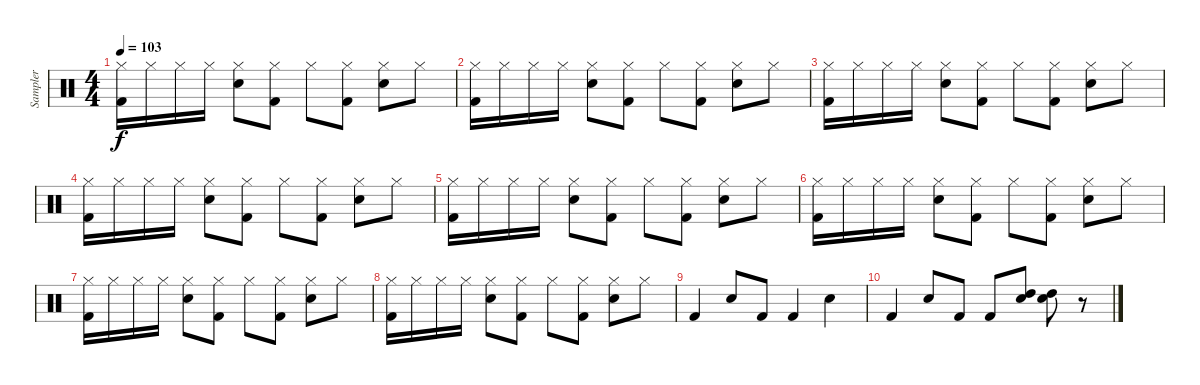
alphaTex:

\track ("Sampler" "Sampler") {instrument percussion}
\staff {score}
\articulation defaults
\ts (4 4)
\tempo 103
\clef neutral
\ks c
("Hi-Hat (closed)" "Kick (hit) 2").16{dy f} "Hi-Hat (closed)".16 "Hi-Hat (closed)".16 "Hi-Hat (closed)".16 ("Hi-Hat (closed)" "Snare (hit) 2").8 ("Hi-Hat (closed)" "Kick (hit) 2").8 "Hi-Hat (closed)".8 ("Hi-Hat (closed)" "Kick (hit) 2").8 ("Hi-Hat (closed)" "Snare (hit) 2").8 "Hi-Hat (closed)".8 |
("Hi-Hat (closed)" "Kick (hit) 2").16 "Hi-Hat (closed)".16 "Hi-Hat (closed)".16 "Hi-Hat (closed)".16 ("Hi-Hat (closed)" "Snare (hit) 2").8 ("Hi-Hat (closed)" "Kick (hit) 2").8 "Hi-Hat (closed)".8 ("Hi-Hat (closed)" "Kick (hit) 2").8 ("Hi-Hat (closed)" "Electric Snare (hit)").8 "Hi-Hat (closed)".8 |
("Hi-Hat (closed)" "Kick (hit) 2").16 "Hi-Hat (closed)".16 "Hi-Hat (closed)".16 "Hi-Hat (closed)".16 ("Hi-Hat (closed)" "Snare (hit) 2").8 ("Hi-Hat (closed)" "Kick (hit) 2").8 "Hi-Hat (closed)".8 ("Hi-Hat (closed)" "Kick (hit) 2").8 ("Hi-Hat (closed)" "Snare (hit) 2").8 "Hi-Hat (closed)".8 |
("Hi-Hat (closed)" "Kick (hit) 2").16 "Hi-Hat (closed)".16 "Hi-Hat (closed)".16 "Hi-Hat (closed)".16 ("Hi-Hat (closed)" "Snare (hit) 2").8 ("Hi-Hat (closed)" "Kick (hit) 2").8 "Hi-Hat (closed)".8 ("Hi-Hat (closed)" "Kick (hit) 2").8 ("Hi-Hat (closed)" "Electric Snare (hit)").8 "Hi-Hat (closed)".8 |
("Hi-Hat (closed)" "Kick (hit) 2").16 "Hi-Hat (closed)".16 "Hi-Hat (closed)".16 "Hi-Hat (closed)".16 ("Hi-Hat (closed)" "Snare (hit) 2").8 ("Hi-Hat (closed)" "Kick (hit) 2").8 "Hi-Hat (closed)".8 ("Hi-Hat (closed)" "Kick (hit) 2").8 ("Hi-Hat (closed)" "Snare (hit) 2").8 "Hi-Hat (closed)".8 |
("Hi-Hat (closed)" "Kick (hit) 2").16 "Hi-Hat (closed)".16 "Hi-Hat (closed)".16 "Hi-Hat (closed)".16 ("Hi-Hat (closed)" "Snare (hit) 2").8 ("Hi-Hat (closed)" "Kick (hit) 2").8 "Hi-Hat (closed)".8 ("Hi-Hat (closed)" "Kick (hit) 2").8 ("Hi-Hat (closed)" "Electric Snare (hit)").8 "Hi-Hat (closed)".8 |
("Hi-Hat (closed)" "Kick (hit) 2").16 "Hi-Hat (closed)".16 "Hi-Hat (closed)".16 "Hi-Hat (closed)".16 ("Hi-Hat (closed)" "Snare (hit) 2").8 ("Hi-Hat (closed)" "Kick (hit) 2").8 "Hi-Hat (closed)".8 ("Hi-Hat (closed)" "Kick (hit) 2").8 ("Hi-Hat (closed)" "Snare (hit) 2").8 "Hi-Hat (closed)".8 |
("Hi-Hat (closed)" "Kick (hit) 2").16 "Hi-Hat (closed)".16 "Hi-Hat (closed)".16 "Hi-Hat (closed)".16 ("Hi-Hat (closed)" "Snare (hit) 2").8 ("Hi-Hat (closed)" "Kick (hit) 2").8 "Hi-Hat (closed)".8 ("Hi-Hat (closed)" "Kick (hit) 2").8 ("Hi-Hat (closed)" "Electric Snare (hit)").8 "Hi-Hat (closed)".8 |
"Kick (hit) 2".4 "Snare (hit) 2".8 "Kick (hit) 2".8 "Kick (hit) 2".4 "Snare (hit) 2".4 |
"Kick (hit) 2".4 "Snare (hit) 2".8 "Kick (hit) 2".8 "Kick (hit) 2".8 ("Snare (hit) 2" "High Tom (hit)").8 ("Snare (hit) 2" "High Tom (hit)").8 r.8
